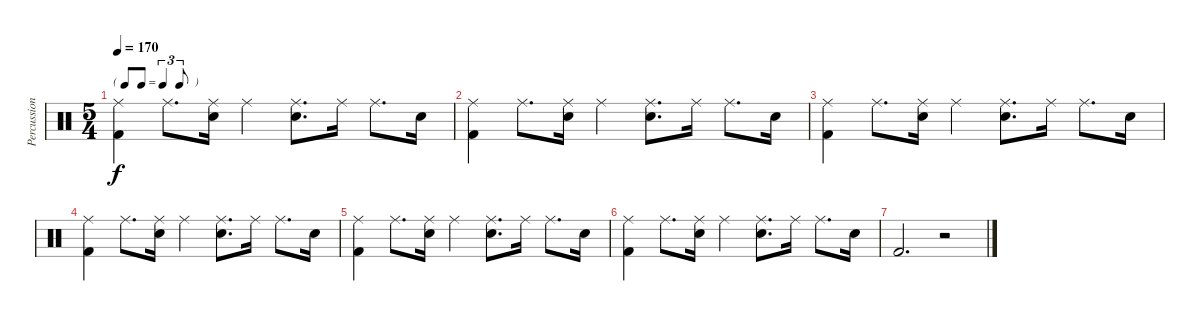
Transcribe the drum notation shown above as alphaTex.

\track ("Percussion" "Percussion") {instrument percussion}
\staff {score}
\articulation defaults
\ts (5 4)
\tf triplet8th
\tempo 170
\clef neutral
\ks c
("Ride (middle)" "Kick (hit) 2").4{dy f} "Ride (middle)".8{d} ("Ride (middle)" "Electric Snare (hit)").16 "Ride (middle)".4 ("Ride (middle)" "Electric Snare (hit)").8{d} "Ride (middle)".16 "Ride (middle)".8{d} "Electric Snare (hit)".16 |
("Ride (middle)" "Kick (hit) 2").4 "Ride (middle)".8{d} ("Ride (middle)" "Electric Snare (hit)").16 "Ride (middle)".4 ("Ride (middle)" "Electric Snare (hit)").8{d} "Ride (middle)".16 "Ride (middle)".8{d} "Electric Snare (hit)".16 |
("Ride (middle)" "Kick (hit) 2").4 "Ride (middle)".8{d} ("Ride (middle)" "Electric Snare (hit)").16 "Ride (middle)".4 ("Ride (middle)" "Electric Snare (hit)").8{d} "Ride (middle)".16 "Ride (middle)".8{d} "Electric Snare (hit)".16 |
("Ride (middle)" "Kick (hit) 2").4 "Ride (middle)".8{d} ("Ride (middle)" "Electric Snare (hit)").16 "Ride (middle)".4 ("Ride (middle)" "Electric Snare (hit)").8{d} "Ride (middle)".16 "Ride (middle)".8{d} "Electric Snare (hit)".16 |
("Ride (middle)" "Kick (hit) 2").4 "Ride (middle)".8{d} ("Ride (middle)" "Electric Snare (hit)").16 "Ride (middle)".4 ("Ride (middle)" "Electric Snare (hit)").8{d} "Ride (middle)".16 "Ride (middle)".8{d} "Electric Snare (hit)".16 |
("Ride (middle)" "Kick (hit) 2").4 "Ride (middle)".8{d} ("Ride (middle)" "Electric Snare (hit)").16 "Ride (middle)".4 ("Ride (middle)" "Electric Snare (hit)").8{d} "Ride (middle)".16 "Ride (middle)".8{d} "Electric Snare (hit)".16 |
"Kick (hit) 2".2{d} r.2
